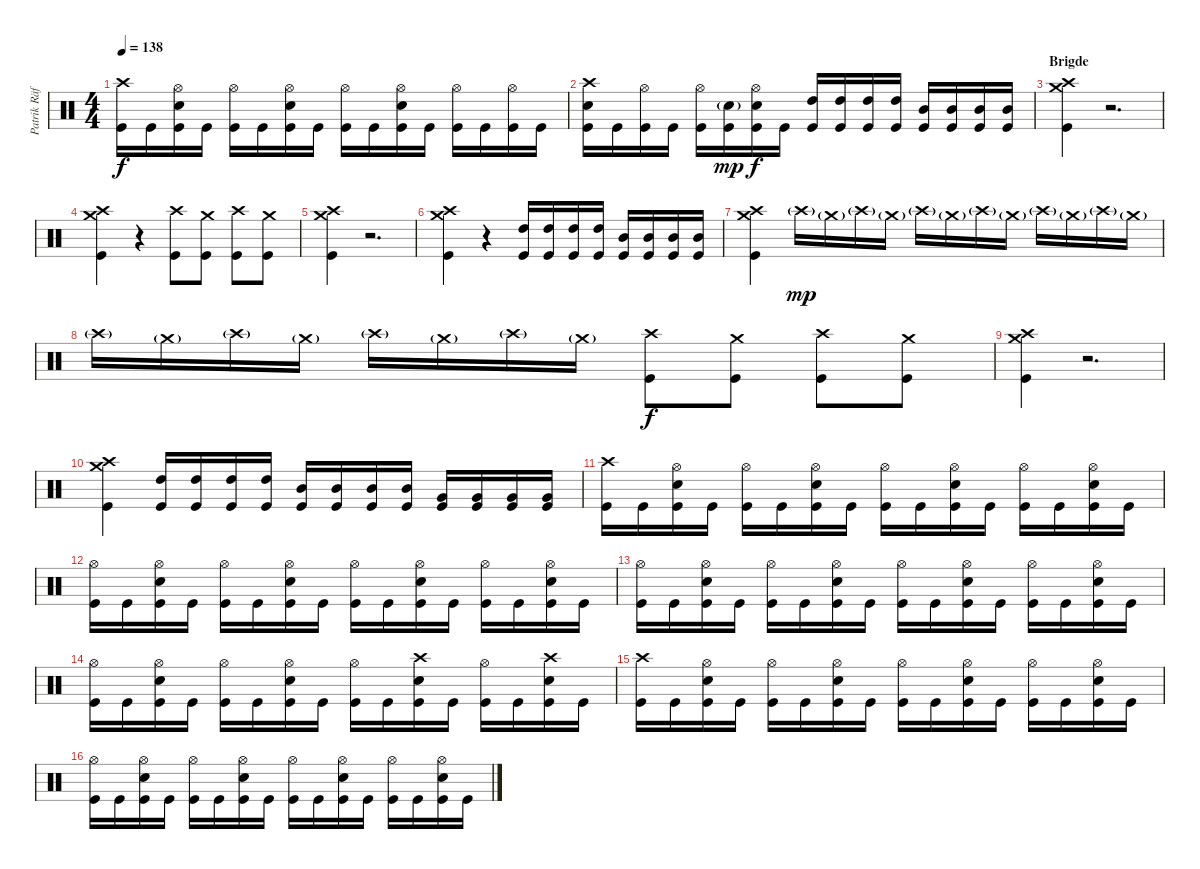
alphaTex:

\track ("Patrik Räfling" "Patrik Räf") {instrument percussion}
\staff {score}
\articulation defaults
\ts (4 4)
\tempo 138
\clef neutral
\ks c
("Crash high (hit)" "Kick (hit)").16{dy f} "Kick (hit)".16 ("Hi-Hat (open)" "Snare (hit) 2" "Kick (hit)").16 "Kick (hit)".16 ("Hi-Hat (open)" "Kick (hit)").16 "Kick (hit)".16 ("Hi-Hat (open)" "Snare (hit) 2" "Kick (hit)").16 "Kick (hit)".16 ("Hi-Hat (open)" "Kick (hit)").16 "Kick (hit)".16 ("Hi-Hat (open)" "Snare (hit) 2" "Kick (hit)").16 "Kick (hit)".16 ("Hi-Hat (open)" "Kick (hit)").16 "Kick (hit)".16 ("Hi-Hat (open)" "Kick (hit)").16 "Kick (hit)".16 |
("Crash high (hit)" "Snare (hit) 2" "Kick (hit)").16 "Kick (hit)".16 ("Hi-Hat (open)" "Kick (hit)").16 "Kick (hit)".16 ("Hi-Hat (open)" "Kick (hit)").16 ("Snare (hit) 2"{g} "Kick (hit)").16{dy mp} ("Hi-Hat (open)" "Snare (hit) 2" "Kick (hit)").16{dy f} "Kick (hit)".16 ("High Tom (hit)" "Kick (hit)").16 ("High Tom (hit)" "Kick (hit)").16 ("High Tom (hit)" "Kick (hit)").16 ("High Tom (hit)" "Kick (hit)").16 ("Mid Tom (hit)" "Kick (hit)").16 ("Mid Tom (hit)" "Kick (hit)").16 ("Mid Tom (hit)" "Kick (hit)").16 ("Mid Tom (hit)" "Kick (hit)").16 |
\section ("" "Brigde")
("Crash high (hit)" "Crash medium (hit)" "Kick (hit)").4 r.2{d} |
("Crash high (hit)" "Crash medium (hit)" "Kick (hit)").4 r.4 ("Crash high (hit)" "Kick (hit)").8 ("Crash medium (hit)" "Kick (hit)").8 ("Crash high (hit)" "Kick (hit)").8 ("Crash medium (hit)" "Kick (hit)").8 |
("Crash high (hit)" "Crash medium (hit)" "Kick (hit)").4 r.2{d} |
("Crash high (hit)" "Crash medium (hit)" "Kick (hit)").4 r.4 ("High Tom (hit)" "Kick (hit)").16 ("High Tom (hit)" "Kick (hit)").16 ("High Tom (hit)" "Kick (hit)").16 ("High Tom (hit)" "Kick (hit)").16 ("Mid Tom (hit)" "Kick (hit)").16 ("Mid Tom (hit)" "Kick (hit)").16 ("Mid Tom (hit)" "Kick (hit)").16 ("Mid Tom (hit)" "Kick (hit)").16 |
("Crash high (hit)" "Crash medium (hit)" "Kick (hit)").4 "Crash high (hit)"{g}.16{dy mp} "Crash medium (hit)"{g}.16 "Crash high (hit)"{g}.16 "Crash medium (hit)"{g}.16 "Crash high (hit)"{g}.16 "Crash medium (hit)"{g}.16 "Crash high (hit)"{g}.16 "Crash medium (hit)"{g}.16 "Crash high (hit)"{g}.16 "Crash medium (hit)"{g}.16 "Crash high (hit)"{g}.16 "Crash medium (hit)"{g}.16 |
"Crash high (hit)"{g}.16 "Crash medium (hit)"{g}.16 "Crash high (hit)"{g}.16 "Crash medium (hit)"{g}.16 "Crash high (hit)"{g}.16 "Crash medium (hit)"{g}.16 "Crash high (hit)"{g}.16 "Crash medium (hit)"{g}.16 ("Crash high (hit)" "Kick (hit)").8{dy f} ("Crash medium (hit)" "Kick (hit)").8 ("Crash high (hit)" "Kick (hit)").8 ("Crash medium (hit)" "Kick (hit)").8 |
("Crash high (hit)" "Crash medium (hit)" "Kick (hit)").4 r.2{d} |
("Crash high (hit)" "Crash medium (hit)" "Kick (hit)").4 ("High Tom (hit)" "Kick (hit)").16 ("High Tom (hit)" "Kick (hit)").16 ("High Tom (hit)" "Kick (hit)").16 ("High Tom (hit)" "Kick (hit)").16 ("Mid Tom (hit)" "Kick (hit)").16 ("Mid Tom (hit)" "Kick (hit)").16 ("Mid Tom (hit)" "Kick (hit)").16 ("Mid Tom (hit)" "Kick (hit)").16 ("Very Low Tom (hit)" "Kick (hit)").16 ("Very Low Tom (hit)" "Kick (hit)").16 ("Very Low Tom (hit)" "Kick (hit)").16 ("Very Low Tom (hit)" "Kick (hit)").16 |
("Crash high (hit)" "Kick (hit)").16 "Kick (hit)".16 ("Hi-Hat (open)" "Snare (hit) 2" "Kick (hit)").16 "Kick (hit)".16 ("Hi-Hat (open)" "Kick (hit)").16 "Kick (hit)".16 ("Hi-Hat (open)" "Snare (hit) 2" "Kick (hit)").16 "Kick (hit)".16 ("Hi-Hat (open)" "Kick (hit)").16 "Kick (hit)".16 ("Hi-Hat (open)" "Snare (hit) 2" "Kick (hit)").16 "Kick (hit)".16 ("Hi-Hat (open)" "Kick (hit)").16 "Kick (hit)".16 ("Hi-Hat (open)" "Snare (hit) 2" "Kick (hit)").16 "Kick (hit)".16 |
("Hi-Hat (open)" "Kick (hit)").16 "Kick (hit)".16 ("Hi-Hat (open)" "Snare (hit) 2" "Kick (hit)").16 "Kick (hit)".16 ("Hi-Hat (open)" "Kick (hit)").16 "Kick (hit)".16 ("Hi-Hat (open)" "Snare (hit) 2" "Kick (hit)").16 "Kick (hit)".16 ("Hi-Hat (open)" "Kick (hit)").16 "Kick (hit)".16 ("Hi-Hat (open)" "Snare (hit) 2" "Kick (hit)").16 "Kick (hit)".16 ("Hi-Hat (open)" "Kick (hit)").16 "Kick (hit)".16 ("Hi-Hat (open)" "Snare (hit) 2" "Kick (hit)").16 "Kick (hit)".16 |
("Hi-Hat (open)" "Kick (hit)").16 "Kick (hit)".16 ("Hi-Hat (open)" "Snare (hit) 2" "Kick (hit)").16 "Kick (hit)".16 ("Hi-Hat (open)" "Kick (hit)").16 "Kick (hit)".16 ("Hi-Hat (open)" "Snare (hit) 2" "Kick (hit)").16 "Kick (hit)".16 ("Hi-Hat (open)" "Kick (hit)").16 "Kick (hit)".16 ("Hi-Hat (open)" "Snare (hit) 2" "Kick (hit)").16 "Kick (hit)".16 ("Hi-Hat (open)" "Kick (hit)").16 "Kick (hit)".16 ("Hi-Hat (open)" "Snare (hit) 2" "Kick (hit)").16 "Kick (hit)".16 |
("Hi-Hat (open)" "Kick (hit)").16 "Kick (hit)".16 ("Hi-Hat (open)" "Snare (hit) 2" "Kick (hit)").16 "Kick (hit)".16 ("Hi-Hat (open)" "Kick (hit)").16 "Kick (hit)".16 ("Hi-Hat (open)" "Snare (hit) 2" "Kick (hit)").16 "Kick (hit)".16 ("Hi-Hat (open)" "Kick (hit)").16 "Kick (hit)".16 ("Crash high (hit)" "Snare (hit) 2" "Kick (hit)").16 "Kick (hit)".16 ("Hi-Hat (open)" "Kick (hit)").16 "Kick (hit)".16 ("Crash high (hit)" "Snare (hit) 2" "Kick (hit)").16 "Kick (hit)".16 |
("Crash high (hit)" "Kick (hit)").16 "Kick (hit)".16 ("Hi-Hat (open)" "Snare (hit) 2" "Kick (hit)").16 "Kick (hit)".16 ("Hi-Hat (open)" "Kick (hit)").16 "Kick (hit)".16 ("Hi-Hat (open)" "Snare (hit) 2" "Kick (hit)").16 "Kick (hit)".16 ("Hi-Hat (open)" "Kick (hit)").16 "Kick (hit)".16 ("Hi-Hat (open)" "Snare (hit) 2" "Kick (hit)").16 "Kick (hit)".16 ("Hi-Hat (open)" "Kick (hit)").16 "Kick (hit)".16 ("Hi-Hat (open)" "Snare (hit) 2" "Kick (hit)").16 "Kick (hit)".16 |
("Hi-Hat (open)" "Kick (hit)").16 "Kick (hit)".16 ("Hi-Hat (open)" "Snare (hit) 2" "Kick (hit)").16 "Kick (hit)".16 ("Hi-Hat (open)" "Kick (hit)").16 "Kick (hit)".16 ("Hi-Hat (open)" "Snare (hit) 2" "Kick (hit)").16 "Kick (hit)".16 ("Hi-Hat (open)" "Kick (hit)").16 "Kick (hit)".16 ("Hi-Hat (open)" "Snare (hit) 2" "Kick (hit)").16 "Kick (hit)".16 ("Hi-Hat (open)" "Kick (hit)").16 "Kick (hit)".16 ("Hi-Hat (open)" "Snare (hit) 2" "Kick (hit)").16 "Kick (hit)".16
